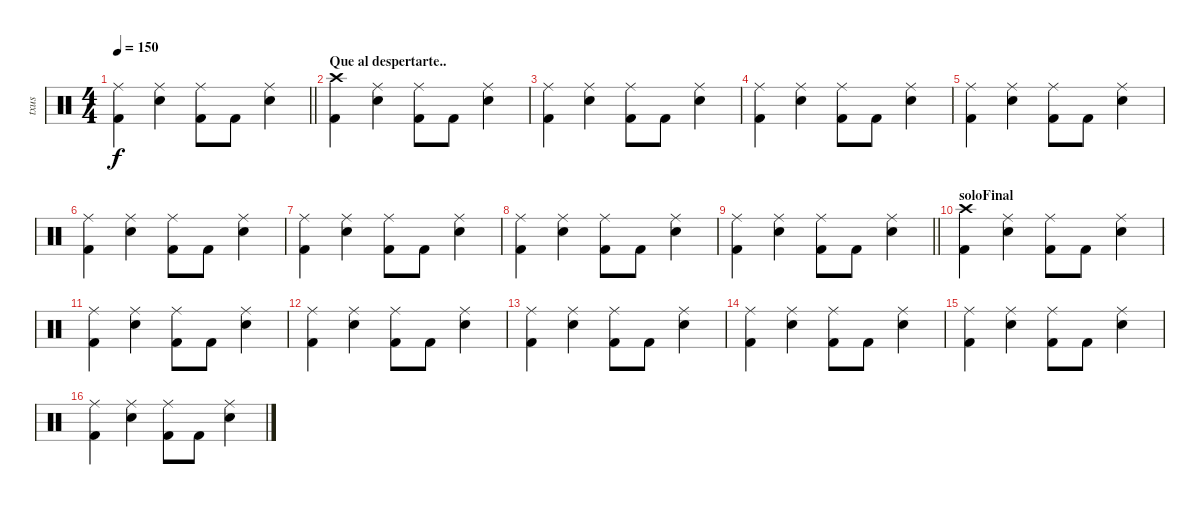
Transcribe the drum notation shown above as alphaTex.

\track ("txus" "txus") {instrument percussion}
\staff {score}
\articulation defaults
\ts (4 4)
\tempo 150
\clef neutral
\barLineRight lightlight
\ks c
("Kick (hit) 2" "Ride (middle)").4{dy f} ("Ride (middle)" "Electric Snare (hit)").4 ("Kick (hit) 2" "Ride (middle)").8 "Kick (hit) 2".8 ("Ride (middle)" "Electric Snare (hit)").4 |
\section ("" "Que al despertarte..")
("Kick (hit) 2" "Crash high (hit)").4 ("Ride (middle)" "Electric Snare (hit)").4 ("Kick (hit) 2" "Ride (middle)").8 "Kick (hit) 2".8 ("Ride (middle)" "Electric Snare (hit)").4 |
("Kick (hit) 2" "Ride (middle)").4 ("Ride (middle)" "Electric Snare (hit)").4 ("Kick (hit) 2" "Ride (middle)").8 "Kick (hit) 2".8 ("Ride (middle)" "Electric Snare (hit)").4 |
("Kick (hit) 2" "Ride (middle)").4 ("Ride (middle)" "Electric Snare (hit)").4 ("Kick (hit) 2" "Ride (middle)").8 "Kick (hit) 2".8 ("Ride (middle)" "Electric Snare (hit)").4 |
("Kick (hit) 2" "Ride (middle)").4 ("Ride (middle)" "Electric Snare (hit)").4 ("Kick (hit) 2" "Ride (middle)").8 "Kick (hit) 2".8 ("Ride (middle)" "Electric Snare (hit)").4 |
("Kick (hit) 2" "Ride (middle)").4 ("Ride (middle)" "Electric Snare (hit)").4 ("Kick (hit) 2" "Ride (middle)").8 "Kick (hit) 2".8 ("Ride (middle)" "Electric Snare (hit)").4 |
("Kick (hit) 2" "Ride (middle)").4 ("Ride (middle)" "Electric Snare (hit)").4 ("Kick (hit) 2" "Ride (middle)").8 "Kick (hit) 2".8 ("Ride (middle)" "Electric Snare (hit)").4 |
("Kick (hit) 2" "Ride (middle)").4 ("Ride (middle)" "Electric Snare (hit)").4 ("Kick (hit) 2" "Ride (middle)").8 "Kick (hit) 2".8 ("Ride (middle)" "Electric Snare (hit)").4 |
\barLineRight lightlight
("Kick (hit) 2" "Ride (middle)").4 ("Ride (middle)" "Electric Snare (hit)").4 ("Kick (hit) 2" "Ride (middle)").8 "Kick (hit) 2".8 ("Ride (middle)" "Electric Snare (hit)").4 |
\section ("" "soloFinal")
("Kick (hit) 2" "Crash high (hit)").4 ("Ride (middle)" "Electric Snare (hit)").4 ("Kick (hit) 2" "Ride (middle)").8 "Kick (hit) 2".8 ("Ride (middle)" "Electric Snare (hit)").4 |
("Kick (hit) 2" "Ride (middle)").4 ("Ride (middle)" "Electric Snare (hit)").4 ("Kick (hit) 2" "Ride (middle)").8 "Kick (hit) 2".8 ("Ride (middle)" "Electric Snare (hit)").4 |
("Kick (hit) 2" "Ride (middle)").4 ("Ride (middle)" "Electric Snare (hit)").4 ("Kick (hit) 2" "Ride (middle)").8 "Kick (hit) 2".8 ("Ride (middle)" "Electric Snare (hit)").4 |
("Kick (hit) 2" "Ride (middle)").4 ("Ride (middle)" "Electric Snare (hit)").4 ("Kick (hit) 2" "Ride (middle)").8 "Kick (hit) 2".8 ("Ride (middle)" "Electric Snare (hit)").4 |
("Kick (hit) 2" "Ride (middle)").4 ("Ride (middle)" "Electric Snare (hit)").4 ("Kick (hit) 2" "Ride (middle)").8 "Kick (hit) 2".8 ("Ride (middle)" "Electric Snare (hit)").4 |
("Kick (hit) 2" "Ride (middle)").4 ("Ride (middle)" "Electric Snare (hit)").4 ("Kick (hit) 2" "Ride (middle)").8 "Kick (hit) 2".8 ("Ride (middle)" "Electric Snare (hit)").4 |
("Kick (hit) 2" "Ride (middle)").4 ("Ride (middle)" "Electric Snare (hit)").4 ("Kick (hit) 2" "Ride (middle)").8 "Kick (hit) 2".8 ("Ride (middle)" "Electric Snare (hit)").4
